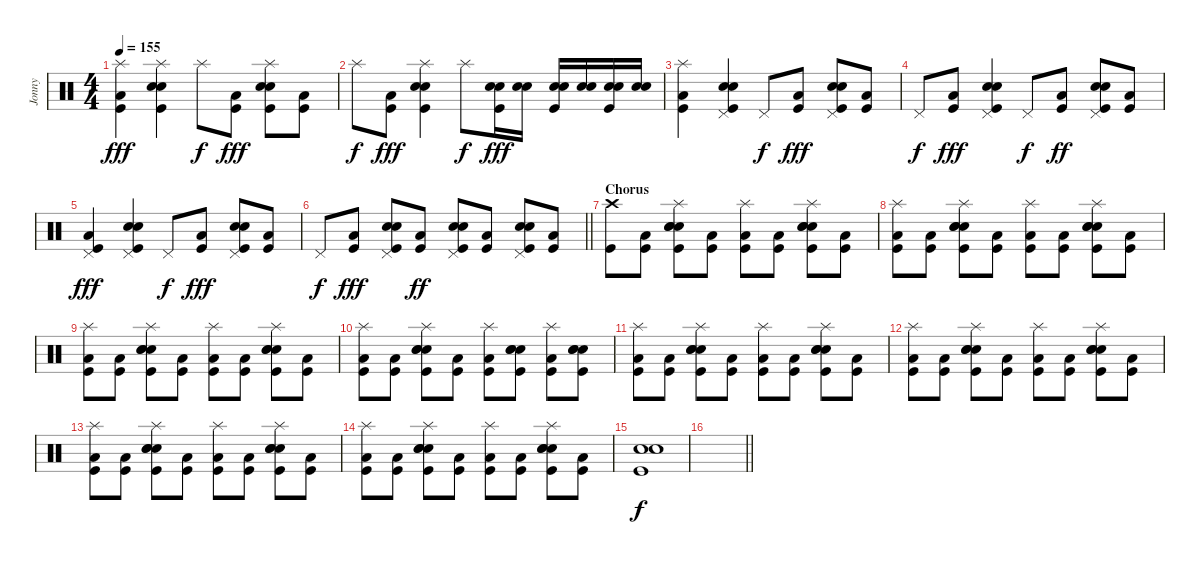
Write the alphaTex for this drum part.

\track ("Jonny" "Jonny") {instrument percussion}
\staff {score}
\articulation defaults
\ts (4 4)
\tempo 155
\clef neutral
\ks c
("Splash (hit)" "Low Floor Tom (hit)" "Kick (hit)").4{dy fff} ("Splash (hit)" "Electric Snare (hit)" "Electric Snare (hit)" "Kick (hit)").4 "Splash (hit)".8{dy f} ("Low Floor Tom (hit)" "Kick (hit)").8{dy fff} ("Splash (hit)" "Electric Snare (hit)" "Electric Snare (hit)" "Kick (hit)").8 ("Low Floor Tom (hit)" "Kick (hit)").8 |
"Splash (hit)".8{dy f} ("Low Floor Tom (hit)" "Kick (hit)").8{dy fff} ("Splash (hit)" "Electric Snare (hit)" "Electric Snare (hit)" "Kick (hit)").4 "Splash (hit)".8{dy f} ("Electric Snare (hit)" "Electric Snare (hit)" "Kick (hit)").16{dy fff} ("Electric Snare (hit)" "Electric Snare (hit)").16 ("Electric Snare (hit)" "Electric Snare (hit)" "Kick (hit)").16 ("Electric Snare (hit)" "Electric Snare (hit)").16 ("Electric Snare (hit)" "Electric Snare (hit)" "Kick (hit)").16 ("Electric Snare (hit)" "Electric Snare (hit)").16 |
("Splash (hit)" "Low Floor Tom (hit)" "Kick (hit)").4 ("Pedal Hi-Hat (hit)" "Electric Snare (hit)" "Electric Snare (hit)" "Kick (hit)").4 "Pedal Hi-Hat (hit)".8{dy f} ("Low Floor Tom (hit)" "Kick (hit)").8{dy fff} ("Pedal Hi-Hat (hit)" "Electric Snare (hit)" "Electric Snare (hit)" "Kick (hit)").8 ("Low Floor Tom (hit)" "Kick (hit)").8 |
"Pedal Hi-Hat (hit)".8{dy f} ("Low Floor Tom (hit)" "Kick (hit)").8{dy fff} ("Pedal Hi-Hat (hit)" "Electric Snare (hit)" "Electric Snare (hit)" "Kick (hit)").4 "Pedal Hi-Hat (hit)".8{dy f} ("Low Floor Tom (hit)" "Kick (hit)").8{dy ff} ("Pedal Hi-Hat (hit)" "Electric Snare (hit)" "Electric Snare (hit)" "Kick (hit)").8 ("Low Floor Tom (hit)" "Kick (hit)").8 |
("Pedal Hi-Hat (hit)" "Low Floor Tom (hit)" "Kick (hit)").4{dy fff} ("Pedal Hi-Hat (hit)" "Electric Snare (hit)" "Electric Snare (hit)" "Kick (hit)").4 "Pedal Hi-Hat (hit)".8{dy f} ("Low Floor Tom (hit)" "Kick (hit)").8{dy fff} ("Pedal Hi-Hat (hit)" "Electric Snare (hit)" "Electric Snare (hit)" "Kick (hit)").8 ("Low Floor Tom (hit)" "Kick (hit)").8 |
\barLineRight lightlight "Pedal Hi-Hat (hit)".8{dy f}
("Low Floor Tom (hit)" "Kick (hit)").8{dy fff} ("Pedal Hi-Hat (hit)" "Electric Snare (hit)" "Electric Snare (hit)" "Kick (hit)").8 ("Low Floor Tom (hit)" "Kick (hit)").8{dy ff} ("Pedal Hi-Hat (hit)" "Electric Snare (hit)" "Electric Snare (hit)" "Kick (hit)").8 ("Low Floor Tom (hit)" "Kick (hit)").8 ("Pedal Hi-Hat (hit)" "Electric Snare (hit)" "Electric Snare (hit)" "Kick (hit)").8 ("Low Floor Tom (hit)" "Kick (hit)").8 |
\section ("" "Chorus")
("Crash high (hit)" "Kick (hit)").8 ("Low Floor Tom (hit)" "Kick (hit)").8 ("Splash (hit)" "Electric Snare (hit)" "Electric Snare (hit)" "Electric Snare (hit)" "Kick (hit)").8 ("Low Floor Tom (hit)" "Kick (hit)").8 ("Splash (hit)" "Low Floor Tom (hit)" "Kick (hit)").8 ("Low Floor Tom (hit)" "Kick (hit)").8 ("Splash (hit)" "Electric Snare (hit)" "Electric Snare (hit)" "Electric Snare (hit)" "Kick (hit)").8 ("Low Floor Tom (hit)" "Kick (hit)").8 |
("Splash (hit)" "Low Floor Tom (hit)" "Kick (hit)").8 ("Low Floor Tom (hit)" "Kick (hit)").8 ("Splash (hit)" "Electric Snare (hit)" "Electric Snare (hit)" "Electric Snare (hit)" "Kick (hit)").8 ("Low Floor Tom (hit)" "Kick (hit)").8 ("Splash (hit)" "Low Floor Tom (hit)" "Kick (hit)").8 ("Low Floor Tom (hit)" "Kick (hit)").8 ("Splash (hit)" "Electric Snare (hit)" "Electric Snare (hit)" "Electric Snare (hit)" "Kick (hit)").8 ("Low Floor Tom (hit)" "Kick (hit)").8 |
("Splash (hit)" "Low Floor Tom (hit)" "Kick (hit)").8 ("Low Floor Tom (hit)" "Kick (hit)").8 ("Splash (hit)" "Electric Snare (hit)" "Electric Snare (hit)" "Electric Snare (hit)" "Kick (hit)").8 ("Low Floor Tom (hit)" "Kick (hit)").8 ("Splash (hit)" "Low Floor Tom (hit)" "Kick (hit)").8 ("Low Floor Tom (hit)" "Kick (hit)").8 ("Splash (hit)" "Electric Snare (hit)" "Electric Snare (hit)" "Electric Snare (hit)" "Kick (hit)").8 ("Low Floor Tom (hit)" "Kick (hit)").8 |
("Splash (hit)" "Low Floor Tom (hit)" "Kick (hit)").8 ("Low Floor Tom (hit)" "Kick (hit)").8 ("Splash (hit)" "Electric Snare (hit)" "Electric Snare (hit)" "Electric Snare (hit)" "Kick (hit)").8 ("Low Floor Tom (hit)" "Kick (hit)").8 ("Splash (hit)" "Low Floor Tom (hit)" "Kick (hit)").8 ("Electric Snare (hit)" "Electric Snare (hit)" "Electric Snare (hit)" "Kick (hit)").8 ("Splash (hit)" "Low Floor Tom (hit)" "Kick (hit)").8 ("Electric Snare (hit)" "Electric Snare (hit)" "Electric Snare (hit)" "Kick (hit)").8 |
("Splash (hit)" "Low Floor Tom (hit)" "Kick (hit)").8 ("Low Floor Tom (hit)" "Kick (hit)").8 ("Splash (hit)" "Electric Snare (hit)" "Electric Snare (hit)" "Electric Snare (hit)" "Kick (hit)").8 ("Low Floor Tom (hit)" "Kick (hit)").8 ("Splash (hit)" "Low Floor Tom (hit)" "Kick (hit)").8 ("Low Floor Tom (hit)" "Kick (hit)").8 ("Splash (hit)" "Electric Snare (hit)" "Electric Snare (hit)" "Electric Snare (hit)" "Kick (hit)").8 ("Low Floor Tom (hit)" "Kick (hit)").8 |
("Splash (hit)" "Low Floor Tom (hit)" "Kick (hit)").8 ("Low Floor Tom (hit)" "Kick (hit)").8 ("Splash (hit)" "Electric Snare (hit)" "Electric Snare (hit)" "Electric Snare (hit)" "Kick (hit)").8 ("Low Floor Tom (hit)" "Kick (hit)").8 ("Splash (hit)" "Low Floor Tom (hit)" "Kick (hit)").8 ("Low Floor Tom (hit)" "Kick (hit)").8 ("Splash (hit)" "Electric Snare (hit)" "Electric Snare (hit)" "Electric Snare (hit)" "Kick (hit)").8 ("Low Floor Tom (hit)" "Kick (hit)").8 |
("Splash (hit)" "Low Floor Tom (hit)" "Kick (hit)").8 ("Low Floor Tom (hit)" "Kick (hit)").8 ("Splash (hit)" "Electric Snare (hit)" "Electric Snare (hit)" "Electric Snare (hit)" "Kick (hit)").8 ("Low Floor Tom (hit)" "Kick (hit)").8 ("Splash (hit)" "Low Floor Tom (hit)" "Kick (hit)").8 ("Low Floor Tom (hit)" "Kick (hit)").8 ("Splash (hit)" "Electric Snare (hit)" "Electric Snare (hit)" "Electric Snare (hit)" "Kick (hit)").8 ("Low Floor Tom (hit)" "Kick (hit)").8 |
("Splash (hit)" "Low Floor Tom (hit)" "Kick (hit)").8 ("Low Floor Tom (hit)" "Kick (hit)").8 ("Splash (hit)" "Electric Snare (hit)" "Electric Snare (hit)" "Electric Snare (hit)" "Kick (hit)").8 ("Low Floor Tom (hit)" "Kick (hit)").8 ("Splash (hit)" "Low Floor Tom (hit)" "Kick (hit)").8 ("Low Floor Tom (hit)" "Kick (hit)").8 ("Splash (hit)" "Electric Snare (hit)" "Electric Snare (hit)" "Electric Snare (hit)" "Kick (hit)").8 ("Low Floor Tom (hit)" "Kick (hit)").8 |
("Electric Snare (hit)" "Electric Snare (hit)" "Kick (hit)").1{dy f} |
\barLineRight lightlight
